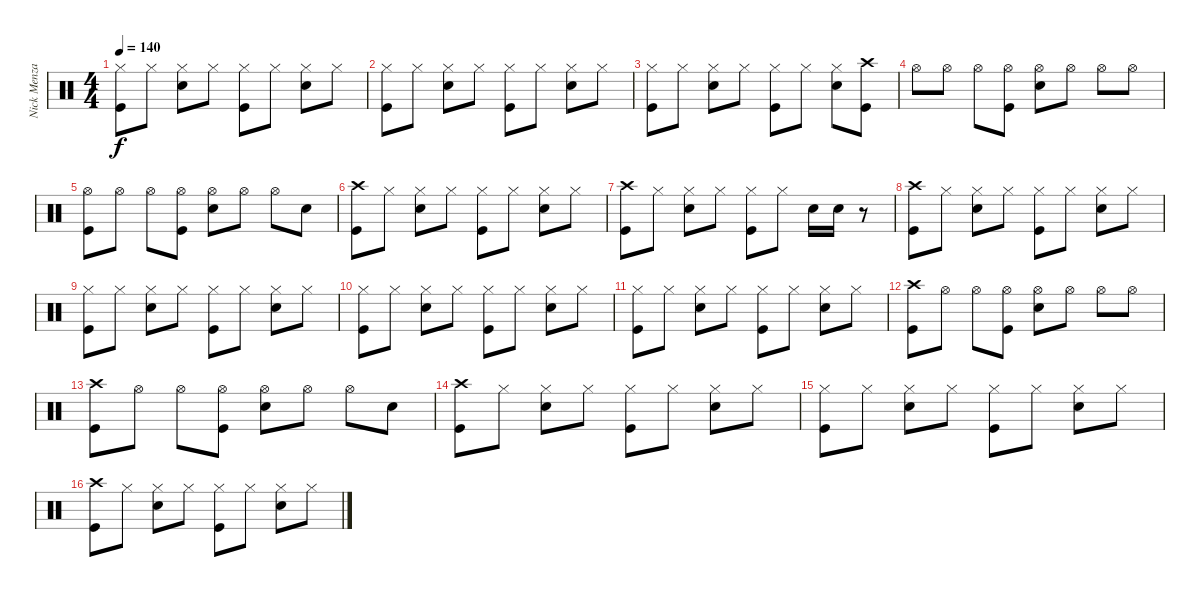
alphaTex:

\track ("Nick Menza (Drums)" "Nick Menza") {instrument percussion}
\staff {score}
\articulation defaults
\ts (4 4)
\tempo 140
\clef neutral
\ks c
("Hi-Hat (closed)" "Kick (hit)").8{dy f} "Hi-Hat (closed)".8 ("Hi-Hat (closed)" "Snare (hit) 2").8 "Hi-Hat (closed)".8 ("Hi-Hat (closed)" "Kick (hit)").8 "Hi-Hat (closed)".8 ("Hi-Hat (closed)" "Snare (hit) 2").8 "Hi-Hat (closed)".8 |
("Hi-Hat (closed)" "Kick (hit)").8 "Hi-Hat (closed)".8 ("Hi-Hat (closed)" "Snare (hit) 2").8 "Hi-Hat (closed)".8 ("Hi-Hat (closed)" "Kick (hit)").8 "Hi-Hat (closed)".8 ("Hi-Hat (closed)" "Snare (hit) 2").8 "Hi-Hat (closed)".8 |
("Hi-Hat (closed)" "Kick (hit)").8 "Hi-Hat (closed)".8 ("Hi-Hat (closed)" "Snare (hit) 2").8 "Hi-Hat (closed)".8 ("Hi-Hat (closed)" "Kick (hit)").8 "Hi-Hat (closed)".8 ("Hi-Hat (closed)" "Snare (hit) 2").8 ("Crash high (hit)" "Kick (hit)").8 |
"Hi-Hat (open)".8 "Hi-Hat (open)".8 "Hi-Hat (open)".8 ("Hi-Hat (open)" "Kick (hit)").8 ("Hi-Hat (open)" "Snare (hit) 2").8 "Hi-Hat (open)".8 "Hi-Hat (open)".8 "Hi-Hat (open)".8 |
("Hi-Hat (open)" "Kick (hit)").8 "Hi-Hat (open)".8 "Hi-Hat (open)".8 ("Hi-Hat (open)" "Kick (hit)").8 ("Hi-Hat (open)" "Snare (hit) 2").8 "Hi-Hat (open)".8 "Hi-Hat (open)".8 "Snare (hit) 2".8 |
("Crash high (hit)" "Kick (hit)").8 "Hi-Hat (closed)".8 ("Hi-Hat (closed)" "Snare (hit) 2").8 "Hi-Hat (closed)".8 ("Hi-Hat (closed)" "Kick (hit)").8 "Hi-Hat (closed)".8 ("Hi-Hat (closed)" "Snare (hit) 2").8 "Hi-Hat (closed)".8 |
("Crash high (hit)" "Kick (hit)").8 "Hi-Hat (closed)".8 ("Hi-Hat (closed)" "Snare (hit) 2").8 "Hi-Hat (closed)".8 ("Hi-Hat (closed)" "Kick (hit)").8 "Hi-Hat (closed)".8 "Snare (hit) 2".16 "Snare (hit) 2".16 r.8 |
("Crash high (hit)" "Kick (hit)").8 "Hi-Hat (closed)".8 ("Hi-Hat (closed)" "Snare (hit) 2").8 "Hi-Hat (closed)".8 ("Hi-Hat (closed)" "Kick (hit)").8 "Hi-Hat (closed)".8 ("Hi-Hat (closed)" "Snare (hit) 2").8 "Hi-Hat (closed)".8 |
("Hi-Hat (closed)" "Kick (hit)").8 "Hi-Hat (closed)".8 ("Hi-Hat (closed)" "Snare (hit) 2").8 "Hi-Hat (closed)".8 ("Hi-Hat (closed)" "Kick (hit)").8 "Hi-Hat (closed)".8 ("Hi-Hat (closed)" "Snare (hit) 2").8 "Hi-Hat (closed)".8 |
("Hi-Hat (closed)" "Kick (hit)").8 "Hi-Hat (closed)".8 ("Hi-Hat (closed)" "Snare (hit) 2").8 "Hi-Hat (closed)".8 ("Hi-Hat (closed)" "Kick (hit)").8 "Hi-Hat (closed)".8 ("Hi-Hat (closed)" "Snare (hit) 2").8 "Hi-Hat (closed)".8 |
("Hi-Hat (closed)" "Kick (hit)").8 "Hi-Hat (closed)".8 ("Hi-Hat (closed)" "Snare (hit) 2").8 "Hi-Hat (closed)".8 ("Hi-Hat (closed)" "Kick (hit)").8 "Hi-Hat (closed)".8 ("Hi-Hat (closed)" "Snare (hit) 2").8 "Hi-Hat (closed)".8 |
("Crash high (hit)" "Kick (hit)").8 "Hi-Hat (open)".8 "Hi-Hat (open)".8 ("Hi-Hat (open)" "Kick (hit)").8 ("Hi-Hat (open)" "Snare (hit) 2").8 "Hi-Hat (open)".8 "Hi-Hat (open)".8 "Hi-Hat (open)".8 |
("Crash high (hit)" "Kick (hit)").8 "Hi-Hat (open)".8 "Hi-Hat (open)".8 ("Hi-Hat (open)" "Kick (hit)").8 ("Hi-Hat (open)" "Snare (hit) 2").8 "Hi-Hat (open)".8 "Hi-Hat (open)".8 "Snare (hit) 2".8 |
("Crash high (hit)" "Kick (hit)").8 "Hi-Hat (closed)".8 ("Hi-Hat (closed)" "Snare (hit) 2").8 "Hi-Hat (closed)".8 ("Hi-Hat (closed)" "Kick (hit)").8 "Hi-Hat (closed)".8 ("Hi-Hat (closed)" "Snare (hit) 2").8 "Hi-Hat (closed)".8 |
("Hi-Hat (closed)" "Kick (hit)").8 "Hi-Hat (closed)".8 ("Hi-Hat (closed)" "Snare (hit) 2").8 "Hi-Hat (closed)".8 ("Hi-Hat (closed)" "Kick (hit)").8 "Hi-Hat (closed)".8 ("Hi-Hat (closed)" "Snare (hit) 2").8 "Hi-Hat (closed)".8 |
("Crash high (hit)" "Kick (hit)").8 "Hi-Hat (closed)".8 ("Hi-Hat (closed)" "Snare (hit) 2").8 "Hi-Hat (closed)".8 ("Hi-Hat (closed)" "Kick (hit)").8 "Hi-Hat (closed)".8 ("Hi-Hat (closed)" "Snare (hit) 2").8 "Hi-Hat (closed)".8
